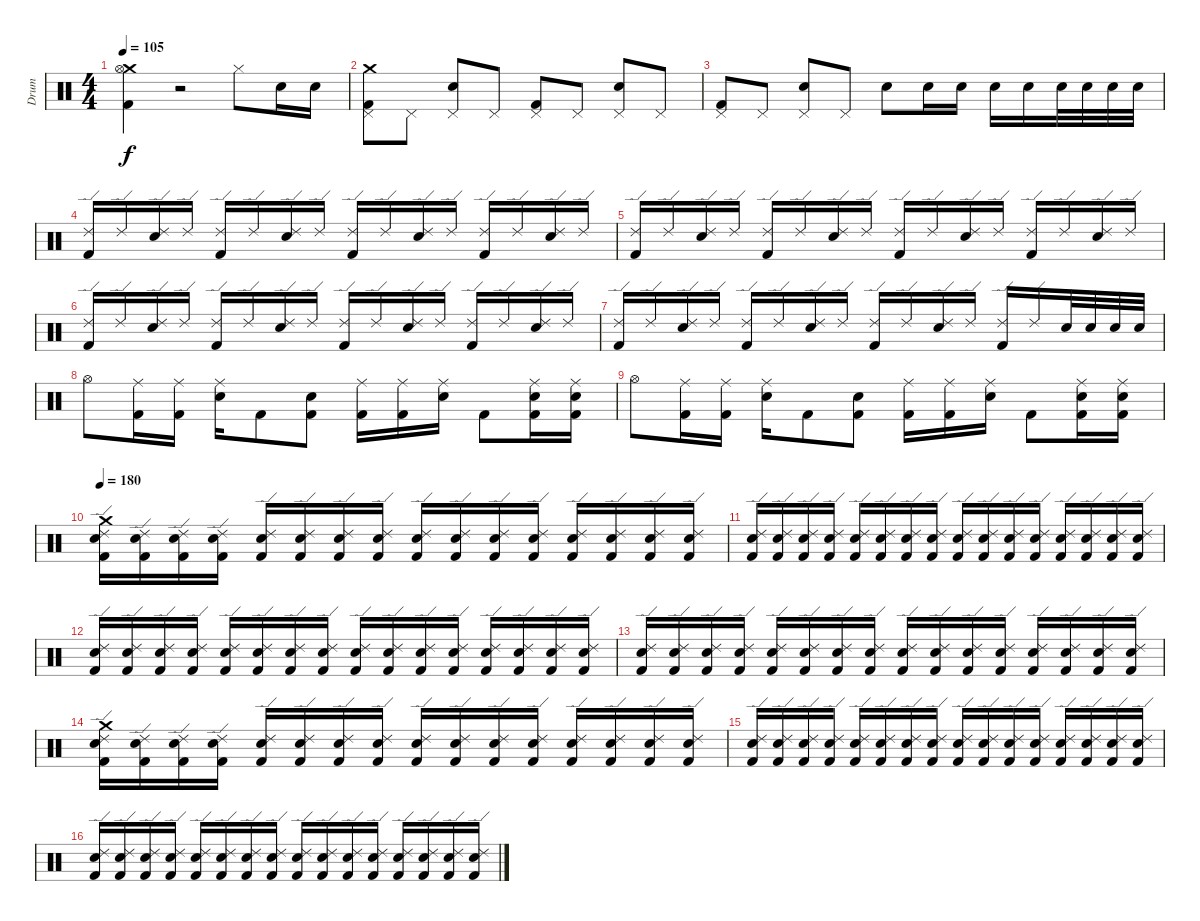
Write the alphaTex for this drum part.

\track ("Drum" "Drum") {instrument percussion}
\staff {score}
\articulation defaults
\ts (4 4)
\tempo 105
\clef neutral
\ks c
("Crash medium (hit)" "Hi-Hat (open)" "Kick (hit) 2").4{dy f} r.2 "Hi-Hat (closed)".8 "Electric Snare (hit)".16 "Electric Snare (hit)".16 |
("Crash medium (hit)" "Pedal Hi-Hat (hit)" "Kick (hit) 2").8 "Pedal Hi-Hat (hit)".8 ("Pedal Hi-Hat (hit)" "Snare (hit) 2").8 "Pedal Hi-Hat (hit)".8 ("Pedal Hi-Hat (hit)" "Kick (hit) 2").8 "Pedal Hi-Hat (hit)".8 ("Pedal Hi-Hat (hit)" "Snare (hit) 2").8 "Pedal Hi-Hat (hit)".8 |
("Pedal Hi-Hat (hit)" "Kick (hit) 2").8 "Pedal Hi-Hat (hit)".8 ("Pedal Hi-Hat (hit)" "Snare (hit) 2").8 "Pedal Hi-Hat (hit)".8 "Electric Snare (hit)".8 "Electric Snare (hit)".16 "Electric Snare (hit)".16 "Electric Snare (hit)".16 "Electric Snare (hit)".16 "Electric Snare (hit)".32 "Electric Snare (hit)".32 "Electric Snare (hit)".32 "Electric Snare (hit)".32 |
("Ride (edge) 2" "Kick (hit) 2").16 "Ride (edge) 2".16 ("Ride (edge) 2" "Snare (hit) 2").16 "Ride (edge) 2".16 ("Ride (edge) 2" "Kick (hit) 2").16 "Ride (edge) 2".16 ("Ride (edge) 2" "Snare (hit) 2").16 "Ride (edge) 2".16 ("Ride (edge) 2" "Kick (hit) 2").16 "Ride (edge) 2".16 ("Ride (edge) 2" "Snare (hit) 2").16 "Ride (edge) 2".16 ("Ride (edge) 2" "Kick (hit) 2").16 "Ride (edge) 2".16 ("Ride (edge) 2" "Snare (hit) 2").16 "Ride (edge) 2".16 |
("Ride (edge) 2" "Kick (hit) 2").16 "Ride (edge) 2".16 ("Ride (edge) 2" "Snare (hit) 2").16 "Ride (edge) 2".16 ("Ride (edge) 2" "Kick (hit) 2").16 "Ride (edge) 2".16 ("Ride (edge) 2" "Snare (hit) 2").16 "Ride (edge) 2".16 ("Ride (edge) 2" "Kick (hit) 2").16 "Ride (edge) 2".16 ("Ride (edge) 2" "Snare (hit) 2").16 "Ride (edge) 2".16 ("Ride (edge) 2" "Kick (hit) 2").16 "Ride (edge) 2".16 ("Ride (edge) 2" "Snare (hit) 2").16 "Ride (edge) 2".16 |
("Ride (edge) 2" "Kick (hit) 2").16 "Ride (edge) 2".16 ("Ride (edge) 2" "Snare (hit) 2").16 "Ride (edge) 2".16 ("Ride (edge) 2" "Kick (hit) 2").16 "Ride (edge) 2".16 ("Ride (edge) 2" "Snare (hit) 2").16 "Ride (edge) 2".16 ("Ride (edge) 2" "Kick (hit) 2").16 "Ride (edge) 2".16 ("Ride (edge) 2" "Snare (hit) 2").16 "Ride (edge) 2".16 ("Ride (edge) 2" "Kick (hit) 2").16 "Ride (edge) 2".16 ("Ride (edge) 2" "Snare (hit) 2").16 "Ride (edge) 2".16 |
("Ride (edge) 2" "Kick (hit) 2").16 "Ride (edge) 2".16 ("Ride (edge) 2" "Snare (hit) 2").16 "Ride (edge) 2".16 ("Ride (edge) 2" "Kick (hit) 2").16 "Ride (edge) 2".16 ("Ride (edge) 2" "Snare (hit) 2").16 "Ride (edge) 2".16 ("Ride (edge) 2" "Kick (hit) 2").16 "Ride (edge) 2".16 ("Ride (edge) 2" "Snare (hit) 2").16 "Ride (edge) 2".16 ("Ride (edge) 2" "Kick (hit) 2").16 "Ride (edge) 2".16 "Electric Snare (hit)".32 "Electric Snare (hit)".32 "Electric Snare (hit)".32 "Electric Snare (hit)".32 |
"Hi-Hat (open)".8 ("Ride (middle)" "Kick (hit) 2").16 ("Ride (middle)" "Kick (hit) 2").16 ("Ride (middle)" "Electric Snare (hit)").16 "Kick (hit) 2".8 ("Electric Snare (hit)" "Kick (hit) 2").8 ("Ride (middle)" "Kick (hit) 2").16 ("Ride (middle)" "Kick (hit) 2").16 ("Ride (middle)" "Electric Snare (hit)").16 "Kick (hit) 2".8 ("Ride (middle)" "Electric Snare (hit)" "Kick (hit) 2").16 ("Ride (middle)" "Electric Snare (hit)" "Kick (hit) 2").16 |
"Hi-Hat (open)".8 ("Ride (middle)" "Kick (hit) 2").16 ("Ride (middle)" "Kick (hit) 2").16 ("Ride (middle)" "Electric Snare (hit)").16 "Kick (hit) 2".8 ("Electric Snare (hit)" "Kick (hit) 2").8 ("Ride (middle)" "Kick (hit) 2").16 ("Ride (middle)" "Kick (hit) 2").16 ("Ride (middle)" "Electric Snare (hit)").16 "Kick (hit) 2".8 ("Ride (middle)" "Electric Snare (hit)" "Kick (hit) 2").16 ("Ride (middle)" "Electric Snare (hit)" "Kick (hit) 2").16 |
\tempo 180
("Crash medium (hit)" "Snare (hit) 2" "Kick (hit) 2" "Ride (edge) 2").16 ("Snare (hit) 2" "Kick (hit) 2" "Ride (edge) 2").16 ("Snare (hit) 2" "Kick (hit) 2" "Ride (edge) 2").16 ("Snare (hit) 2" "Kick (hit) 2" "Ride (edge) 2").16 ("Snare (hit) 2" "Kick (hit) 2" "Ride (edge) 2").16 ("Snare (hit) 2" "Kick (hit) 2" "Ride (edge) 2").16 ("Snare (hit) 2" "Kick (hit) 2" "Ride (edge) 2").16 ("Snare (hit) 2" "Kick (hit) 2" "Ride (edge) 2").16 ("Snare (hit) 2" "Kick (hit) 2" "Ride (edge) 2").16 ("Snare (hit) 2" "Kick (hit) 2" "Ride (edge) 2").16 ("Snare (hit) 2" "Kick (hit) 2" "Ride (edge) 2").16 ("Snare (hit) 2" "Kick (hit) 2" "Ride (edge) 2").16 ("Snare (hit) 2" "Kick (hit) 2" "Ride (edge) 2").16 ("Snare (hit) 2" "Kick (hit) 2" "Ride (edge) 2").16 ("Snare (hit) 2" "Kick (hit) 2" "Ride (edge) 2").16 ("Snare (hit) 2" "Kick (hit) 2" "Ride (edge) 2").16 |
("Snare (hit) 2" "Kick (hit) 2" "Ride (edge) 2").16 ("Snare (hit) 2" "Kick (hit) 2" "Ride (edge) 2").16 ("Snare (hit) 2" "Kick (hit) 2" "Ride (edge) 2").16 ("Snare (hit) 2" "Kick (hit) 2" "Ride (edge) 2").16 ("Snare (hit) 2" "Kick (hit) 2" "Ride (edge) 2").16 ("Snare (hit) 2" "Kick (hit) 2" "Ride (edge) 2").16 ("Snare (hit) 2" "Kick (hit) 2" "Ride (edge) 2").16 ("Snare (hit) 2" "Kick (hit) 2" "Ride (edge) 2").16 ("Snare (hit) 2" "Kick (hit) 2" "Ride (edge) 2").16 ("Snare (hit) 2" "Kick (hit) 2" "Ride (edge) 2").16 ("Snare (hit) 2" "Kick (hit) 2" "Ride (edge) 2").16 ("Snare (hit) 2" "Kick (hit) 2" "Ride (edge) 2").16 ("Snare (hit) 2" "Kick (hit) 2" "Ride (edge) 2").16 ("Snare (hit) 2" "Kick (hit) 2" "Ride (edge) 2").16 ("Snare (hit) 2" "Kick (hit) 2" "Ride (edge) 2").16 ("Snare (hit) 2" "Kick (hit) 2" "Ride (edge) 2").16 |
("Snare (hit) 2" "Kick (hit) 2" "Ride (edge) 2").16 ("Snare (hit) 2" "Kick (hit) 2" "Ride (edge) 2").16 ("Snare (hit) 2" "Kick (hit) 2" "Ride (edge) 2").16 ("Snare (hit) 2" "Kick (hit) 2" "Ride (edge) 2").16 ("Snare (hit) 2" "Kick (hit) 2" "Ride (edge) 2").16 ("Snare (hit) 2" "Kick (hit) 2" "Ride (edge) 2").16 ("Snare (hit) 2" "Kick (hit) 2" "Ride (edge) 2").16 ("Snare (hit) 2" "Kick (hit) 2" "Ride (edge) 2").16 ("Snare (hit) 2" "Kick (hit) 2" "Ride (edge) 2").16 ("Snare (hit) 2" "Kick (hit) 2" "Ride (edge) 2").16 ("Snare (hit) 2" "Kick (hit) 2" "Ride (edge) 2").16 ("Snare (hit) 2" "Kick (hit) 2" "Ride (edge) 2").16 ("Snare (hit) 2" "Kick (hit) 2" "Ride (edge) 2").16 ("Snare (hit) 2" "Kick (hit) 2" "Ride (edge) 2").16 ("Snare (hit) 2" "Kick (hit) 2" "Ride (edge) 2").16 ("Snare (hit) 2" "Kick (hit) 2" "Ride (edge) 2").16 |
("Snare (hit) 2" "Kick (hit) 2" "Ride (edge) 2").16 ("Snare (hit) 2" "Kick (hit) 2" "Ride (edge) 2").16 ("Snare (hit) 2" "Kick (hit) 2" "Ride (edge) 2").16 ("Snare (hit) 2" "Kick (hit) 2" "Ride (edge) 2").16 ("Snare (hit) 2" "Kick (hit) 2" "Ride (edge) 2").16 ("Snare (hit) 2" "Kick (hit) 2" "Ride (edge) 2").16 ("Snare (hit) 2" "Kick (hit) 2" "Ride (edge) 2").16 ("Snare (hit) 2" "Kick (hit) 2" "Ride (edge) 2").16 ("Snare (hit) 2" "Kick (hit) 2" "Ride (edge) 2").16 ("Snare (hit) 2" "Kick (hit) 2" "Ride (edge) 2").16 ("Snare (hit) 2" "Kick (hit) 2" "Ride (edge) 2").16 ("Snare (hit) 2" "Kick (hit) 2" "Ride (edge) 2").16 ("Snare (hit) 2" "Kick (hit) 2" "Ride (edge) 2").16 ("Snare (hit) 2" "Kick (hit) 2" "Ride (edge) 2").16 ("Snare (hit) 2" "Kick (hit) 2" "Ride (edge) 2").16 ("Snare (hit) 2" "Kick (hit) 2" "Ride (edge) 2").16 |
("Crash medium (hit)" "Snare (hit) 2" "Kick (hit) 2" "Ride (edge) 2").16 ("Snare (hit) 2" "Kick (hit) 2" "Ride (edge) 2").16 ("Snare (hit) 2" "Kick (hit) 2" "Ride (edge) 2").16 ("Snare (hit) 2" "Kick (hit) 2" "Ride (edge) 2").16 ("Snare (hit) 2" "Kick (hit) 2" "Ride (edge) 2").16 ("Snare (hit) 2" "Kick (hit) 2" "Ride (edge) 2").16 ("Snare (hit) 2" "Kick (hit) 2" "Ride (edge) 2").16 ("Snare (hit) 2" "Kick (hit) 2" "Ride (edge) 2").16 ("Snare (hit) 2" "Kick (hit) 2" "Ride (edge) 2").16 ("Snare (hit) 2" "Kick (hit) 2" "Ride (edge) 2").16 ("Snare (hit) 2" "Kick (hit) 2" "Ride (edge) 2").16 ("Snare (hit) 2" "Kick (hit) 2" "Ride (edge) 2").16 ("Snare (hit) 2" "Kick (hit) 2" "Ride (edge) 2").16 ("Snare (hit) 2" "Kick (hit) 2" "Ride (edge) 2").16 ("Snare (hit) 2" "Kick (hit) 2" "Ride (edge) 2").16 ("Snare (hit) 2" "Kick (hit) 2" "Ride (edge) 2").16 |
("Snare (hit) 2" "Kick (hit) 2" "Ride (edge) 2").16 ("Snare (hit) 2" "Kick (hit) 2" "Ride (edge) 2").16 ("Snare (hit) 2" "Kick (hit) 2" "Ride (edge) 2").16 ("Snare (hit) 2" "Kick (hit) 2" "Ride (edge) 2").16 ("Snare (hit) 2" "Kick (hit) 2" "Ride (edge) 2").16 ("Snare (hit) 2" "Kick (hit) 2" "Ride (edge) 2").16 ("Snare (hit) 2" "Kick (hit) 2" "Ride (edge) 2").16 ("Snare (hit) 2" "Kick (hit) 2" "Ride (edge) 2").16 ("Snare (hit) 2" "Kick (hit) 2" "Ride (edge) 2").16 ("Snare (hit) 2" "Kick (hit) 2" "Ride (edge) 2").16 ("Snare (hit) 2" "Kick (hit) 2" "Ride (edge) 2").16 ("Snare (hit) 2" "Kick (hit) 2" "Ride (edge) 2").16 ("Snare (hit) 2" "Kick (hit) 2" "Ride (edge) 2").16 ("Snare (hit) 2" "Kick (hit) 2" "Ride (edge) 2").16 ("Snare (hit) 2" "Kick (hit) 2" "Ride (edge) 2").16 ("Snare (hit) 2" "Kick (hit) 2" "Ride (edge) 2").16 |
("Snare (hit) 2" "Kick (hit) 2" "Ride (edge) 2").16 ("Snare (hit) 2" "Kick (hit) 2" "Ride (edge) 2").16 ("Snare (hit) 2" "Kick (hit) 2" "Ride (edge) 2").16 ("Snare (hit) 2" "Kick (hit) 2" "Ride (edge) 2").16 ("Snare (hit) 2" "Kick (hit) 2" "Ride (edge) 2").16 ("Snare (hit) 2" "Kick (hit) 2" "Ride (edge) 2").16 ("Snare (hit) 2" "Kick (hit) 2" "Ride (edge) 2").16 ("Snare (hit) 2" "Kick (hit) 2" "Ride (edge) 2").16 ("Snare (hit) 2" "Kick (hit) 2" "Ride (edge) 2").16 ("Snare (hit) 2" "Kick (hit) 2" "Ride (edge) 2").16 ("Snare (hit) 2" "Kick (hit) 2" "Ride (edge) 2").16 ("Snare (hit) 2" "Kick (hit) 2" "Ride (edge) 2").16 ("Snare (hit) 2" "Kick (hit) 2" "Ride (edge) 2").16 ("Snare (hit) 2" "Kick (hit) 2" "Ride (edge) 2").16 ("Snare (hit) 2" "Kick (hit) 2" "Ride (edge) 2").16 ("Snare (hit) 2" "Kick (hit) 2" "Ride (edge) 2").16
